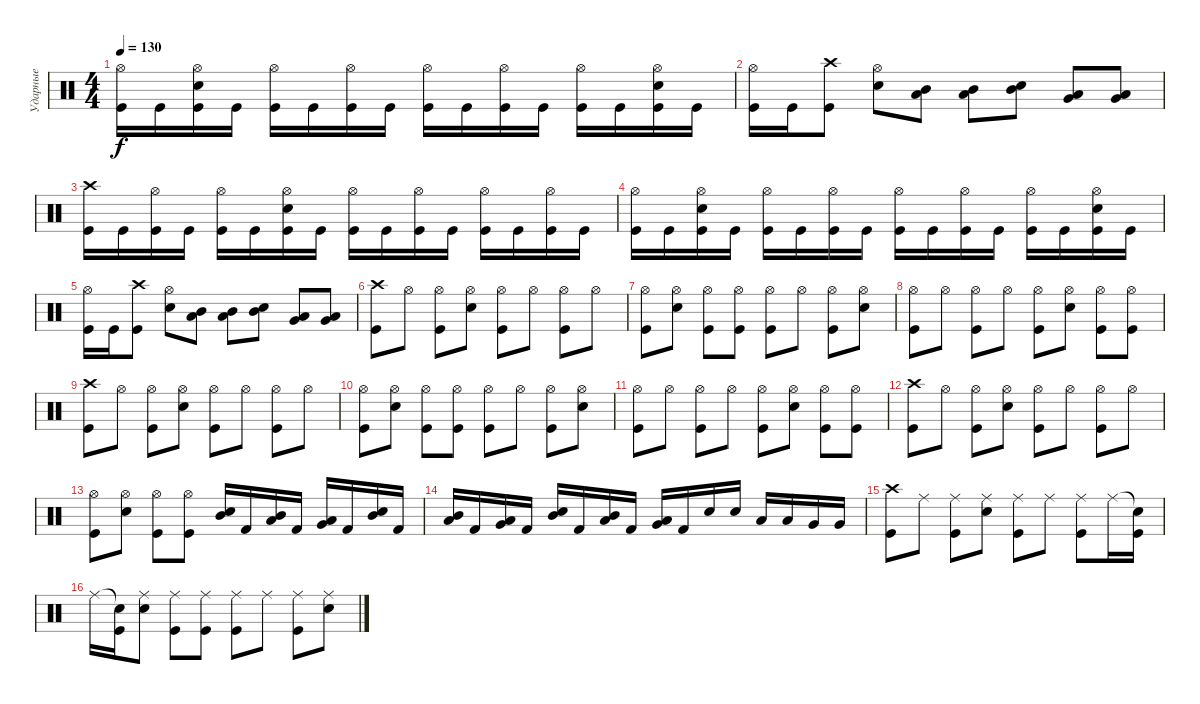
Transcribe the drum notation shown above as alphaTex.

\track ("Ударные" "Ударные") {instrument percussion}
\staff {score}
\articulation defaults
\ts (4 4)
\tempo 130
\clef neutral
\ks c
("Hi-Hat (open)" "Kick (hit)").16{dy f} "Kick (hit)".16 ("Hi-Hat (open)" "Snare (hit) 2" "Kick (hit)").16 "Kick (hit)".16 ("Hi-Hat (open)" "Kick (hit)").16 "Kick (hit)".16 ("Hi-Hat (open)" "Kick (hit)").16 "Kick (hit)".16 ("Hi-Hat (open)" "Kick (hit)").16 "Kick (hit)".16 ("Hi-Hat (open)" "Kick (hit)").16 "Kick (hit)".16 ("Hi-Hat (open)" "Kick (hit)").16 "Kick (hit)".16 ("Hi-Hat (open)" "Snare (hit) 2" "Kick (hit)").16 "Kick (hit)".16 |
("Hi-Hat (open)" "Kick (hit)").16 "Kick (hit)".16 ("Crash high (hit)" "Kick (hit)").8 ("Hi-Hat (open)" "Snare (hit) 2").8 ("Mid Tom (hit)" "Low Tom (hit)").8 ("Mid Tom (hit)" "Low Tom (hit)").8 ("Mid Tom (hit)" "Snare (hit) 2").8 ("Low Tom (hit)" "Very Low Tom (hit)").8 ("Low Floor Tom (hit)" "Very Low Tom (hit)").8 |
("Crash high (hit)" "Kick (hit)").16 "Kick (hit)".16 ("Hi-Hat (open)" "Kick (hit)").16 "Kick (hit)".16 ("Hi-Hat (open)" "Kick (hit)").16 "Kick (hit)".16 ("Hi-Hat (open)" "Snare (hit) 2" "Kick (hit)").16 "Kick (hit)".16 ("Hi-Hat (open)" "Kick (hit)").16 "Kick (hit)".16 ("Hi-Hat (open)" "Kick (hit)").16 "Kick (hit)".16 ("Hi-Hat (open)" "Kick (hit)").16 "Kick (hit)".16 ("Hi-Hat (open)" "Kick (hit)").16 "Kick (hit)".16 |
("Hi-Hat (open)" "Kick (hit)").16 "Kick (hit)".16 ("Hi-Hat (open)" "Snare (hit) 2" "Kick (hit)").16 "Kick (hit)".16 ("Hi-Hat (open)" "Kick (hit)").16 "Kick (hit)".16 ("Hi-Hat (open)" "Kick (hit)").16 "Kick (hit)".16 ("Hi-Hat (open)" "Kick (hit)").16 "Kick (hit)".16 ("Hi-Hat (open)" "Kick (hit)").16 "Kick (hit)".16 ("Hi-Hat (open)" "Kick (hit)").16 "Kick (hit)".16 ("Hi-Hat (open)" "Snare (hit) 2" "Kick (hit)").16 "Kick (hit)".16 |
("Hi-Hat (open)" "Kick (hit)").16 "Kick (hit)".16 ("Crash high (hit)" "Kick (hit)").8 ("Hi-Hat (open)" "Snare (hit) 2").8 ("Mid Tom (hit)" "Low Tom (hit)").8 ("Mid Tom (hit)" "Low Tom (hit)").8 ("Mid Tom (hit)" "Snare (hit) 2").8 ("Low Tom (hit)" "Very Low Tom (hit)").8 ("Low Floor Tom (hit)" "Very Low Tom (hit)").8 |
("Crash high (hit)" "Kick (hit)").8 "Hi-Hat (open)".8 ("Hi-Hat (open)" "Kick (hit)").8 ("Snare (hit) 2" "Hi-Hat (open)").8 ("Hi-Hat (open)" "Kick (hit)").8 "Hi-Hat (open)".8 ("Hi-Hat (open)" "Kick (hit)").8 "Hi-Hat (open)".8 |
("Hi-Hat (open)" "Kick (hit)").8 ("Hi-Hat (open)" "Snare (hit) 2").8 ("Hi-Hat (open)" "Kick (hit)").8 ("Hi-Hat (open)" "Kick (hit)").8 ("Hi-Hat (open)" "Kick (hit)").8 "Hi-Hat (open)".8 ("Hi-Hat (open)" "Kick (hit)").8 ("Hi-Hat (open)" "Snare (hit) 2").8 |
("Hi-Hat (open)" "Kick (hit)").8 "Hi-Hat (open)".8 ("Hi-Hat (open)" "Kick (hit)").8 "Hi-Hat (open)".8 ("Hi-Hat (open)" "Kick (hit)").8 ("Hi-Hat (open)" "Snare (hit) 2").8 ("Hi-Hat (open)" "Kick (hit)").8 ("Hi-Hat (open)" "Kick (hit)").8 |
("Crash high (hit)" "Kick (hit)").8 "Hi-Hat (open)".8 ("Hi-Hat (open)" "Kick (hit)").8 ("Snare (hit) 2" "Hi-Hat (open)").8 ("Hi-Hat (open)" "Kick (hit)").8 "Hi-Hat (open)".8 ("Hi-Hat (open)" "Kick (hit)").8 "Hi-Hat (open)".8 |
("Hi-Hat (open)" "Kick (hit)").8 ("Hi-Hat (open)" "Snare (hit) 2").8 ("Hi-Hat (open)" "Kick (hit)").8 ("Hi-Hat (open)" "Kick (hit)").8 ("Hi-Hat (open)" "Kick (hit)").8 "Hi-Hat (open)".8 ("Hi-Hat (open)" "Kick (hit)").8 ("Hi-Hat (open)" "Snare (hit) 2").8 |
("Hi-Hat (open)" "Kick (hit)").8 "Hi-Hat (open)".8 ("Hi-Hat (open)" "Kick (hit)").8 "Hi-Hat (open)".8 ("Hi-Hat (open)" "Kick (hit)").8 ("Hi-Hat (open)" "Snare (hit) 2").8 ("Hi-Hat (open)" "Kick (hit)").8 ("Hi-Hat (open)" "Kick (hit)").8 |
("Crash high (hit)" "Kick (hit)").8 "Hi-Hat (open)".8 ("Hi-Hat (open)" "Kick (hit)").8 ("Snare (hit) 2" "Hi-Hat (open)").8 ("Hi-Hat (open)" "Kick (hit)").8 "Hi-Hat (open)".8 ("Hi-Hat (open)" "Kick (hit)").8 "Hi-Hat (open)".8 |
("Hi-Hat (open)" "Kick (hit)").8 ("Hi-Hat (open)" "Snare (hit) 2").8 ("Hi-Hat (open)" "Kick (hit)").8 ("Hi-Hat (open)" "Kick (hit)").8 ("Mid Tom (hit)" "Snare (hit) 2").16 "Kick (hit) 2".16 ("Mid Tom (hit)" "Low Tom (hit)").16 "Kick (hit) 2".16 ("Low Tom (hit)" "Very Low Tom (hit)").16 "Kick (hit) 2".16 ("Mid Tom (hit)" "Snare (hit) 2").16 "Kick (hit) 2".16 |
("Mid Tom (hit)" "Low Tom (hit)").16 "Kick (hit) 2".16 ("Low Tom (hit)" "Very Low Tom (hit)").16 "Kick (hit) 2".16 ("Mid Tom (hit)" "Snare (hit) 2").16 "Kick (hit) 2".16 ("Mid Tom (hit)" "Low Tom (hit)").16 "Kick (hit) 2".16 ("Low Tom (hit)" "Very Low Tom (hit)").16 "Kick (hit) 2".16 "Snare (hit) 2".16 "Snare (hit) 2".16 "Low Tom (hit)".16 "Low Tom (hit)".16 "Very Low Tom (hit)".16 "Very Low Tom (hit)".16 |
("Crash high (hit)" "Kick (hit)").8 "Ride (middle)".8 ("Ride (middle)" "Kick (hit)").8 ("Ride (middle)" "Snare (hit) 2").8 ("Ride (middle)" "Kick (hit)").8 "Ride (middle)".8 ("Ride (middle)" "Kick (hit)").8 "Ride (middle)".16 ("Snare (hit)"{t} "Kick (hit)").16 |
"Ride (middle)".16 ("Snare (hit)"{t} "Kick (hit)").16 ("Ride (middle)" "Snare (hit) 2").8 ("Ride (middle)" "Kick (hit)").8 ("Ride (middle)" "Kick (hit)").8 ("Ride (middle)" "Kick (hit)").8 "Ride (middle)".8 ("Ride (middle)" "Kick (hit)").8 ("Ride (middle)" "Snare (hit) 2").8
